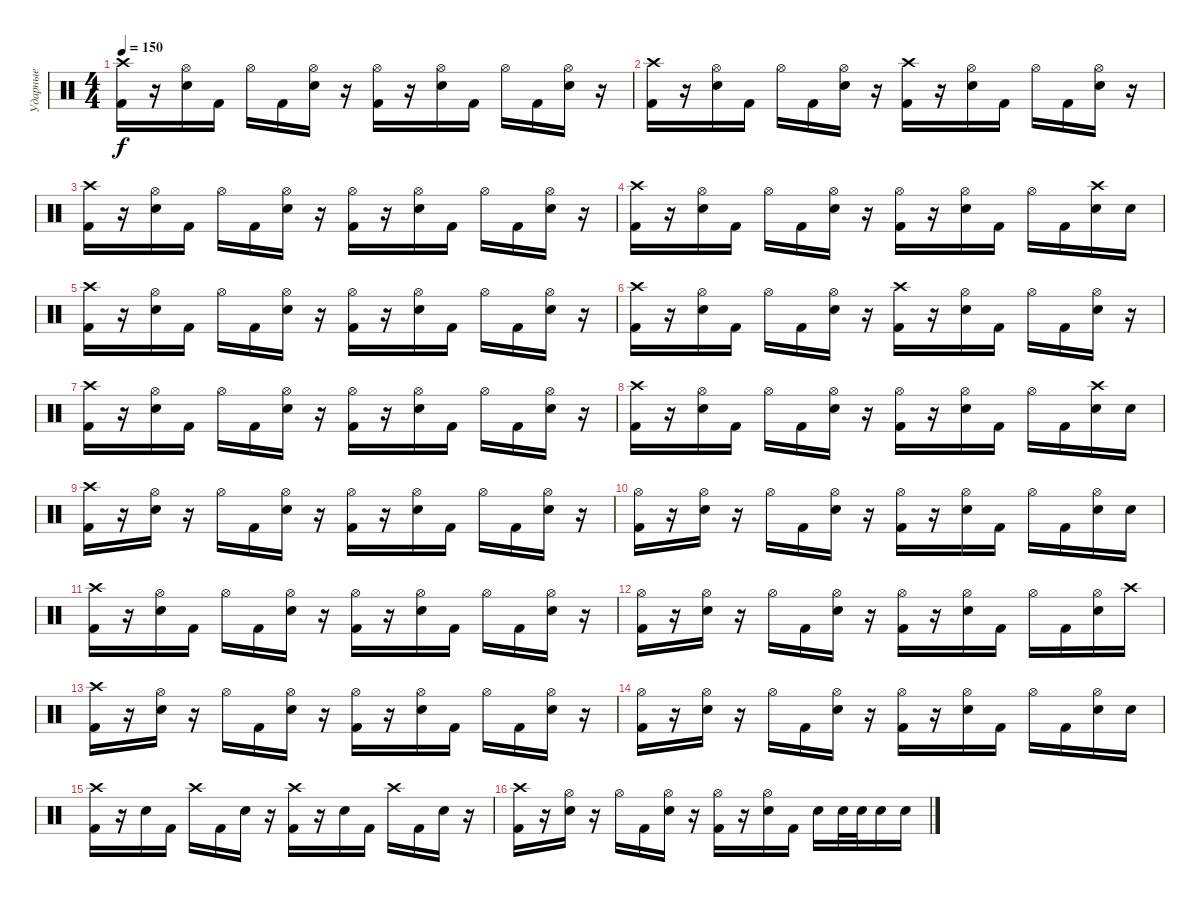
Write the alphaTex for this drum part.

\track ("Ударные" "Ударные") {instrument percussion}
\staff {score}
\articulation defaults
\ts (4 4)
\tempo 150
\clef neutral
\ks c
("Crash high (hit)" "Kick (hit) 2").16{dy f} r.16 ("Hi-Hat (open)" "Snare (hit) 2").16 "Kick (hit) 2".16 "Hi-Hat (open)".16 "Kick (hit) 2".16 ("Hi-Hat (open)" "Snare (hit) 2").16 r.16 ("Hi-Hat (open)" "Kick (hit) 2").16 r.16 ("Hi-Hat (open)" "Snare (hit) 2").16 "Kick (hit) 2".16 "Hi-Hat (open)".16 "Kick (hit) 2".16 ("Hi-Hat (open)" "Snare (hit) 2").16 r.16 |
("Crash high (hit)" "Kick (hit) 2").16 r.16 ("Hi-Hat (open)" "Snare (hit) 2").16 "Kick (hit) 2".16 "Hi-Hat (open)".16 "Kick (hit) 2".16 ("Hi-Hat (open)" "Snare (hit) 2").16 r.16 ("Crash high (hit)" "Kick (hit) 2").16 r.16 ("Hi-Hat (open)" "Snare (hit) 2").16 "Kick (hit) 2".16 "Hi-Hat (open)".16 "Kick (hit) 2".16 ("Hi-Hat (open)" "Snare (hit) 2").16 r.16 |
("Crash high (hit)" "Kick (hit) 2").16 r.16 ("Hi-Hat (open)" "Snare (hit) 2").16 "Kick (hit) 2".16 "Hi-Hat (open)".16 "Kick (hit) 2".16 ("Hi-Hat (open)" "Snare (hit) 2").16 r.16 ("Hi-Hat (open)" "Kick (hit) 2").16 r.16 ("Hi-Hat (open)" "Snare (hit) 2").16 "Kick (hit) 2".16 "Hi-Hat (open)".16 "Kick (hit) 2".16 ("Hi-Hat (open)" "Snare (hit) 2").16 r.16 |
("Crash high (hit)" "Kick (hit) 2").16 r.16 ("Hi-Hat (open)" "Snare (hit) 2").16 "Kick (hit) 2".16 "Hi-Hat (open)".16 "Kick (hit) 2".16 ("Hi-Hat (open)" "Snare (hit) 2").16 r.16 ("Hi-Hat (open)" "Kick (hit) 2").16 r.16 ("Hi-Hat (open)" "Snare (hit) 2").16 "Kick (hit) 2".16 "Hi-Hat (open)".16 "Kick (hit) 2".16 ("Crash high (hit)" "Snare (hit) 2").16 "Snare (hit) 2".16 |
("Crash high (hit)" "Kick (hit) 2").16 r.16 ("Hi-Hat (open)" "Snare (hit) 2").16 "Kick (hit) 2".16 "Hi-Hat (open)".16 "Kick (hit) 2".16 ("Hi-Hat (open)" "Snare (hit) 2").16 r.16 ("Hi-Hat (open)" "Kick (hit) 2").16 r.16 ("Hi-Hat (open)" "Snare (hit) 2").16 "Kick (hit) 2".16 "Hi-Hat (open)".16 "Kick (hit) 2".16 ("Hi-Hat (open)" "Snare (hit) 2").16 r.16 |
("Crash high (hit)" "Kick (hit) 2").16 r.16 ("Hi-Hat (open)" "Snare (hit) 2").16 "Kick (hit) 2".16 "Hi-Hat (open)".16 "Kick (hit) 2".16 ("Hi-Hat (open)" "Snare (hit) 2").16 r.16 ("Crash high (hit)" "Kick (hit) 2").16 r.16 ("Hi-Hat (open)" "Snare (hit) 2").16 "Kick (hit) 2".16 "Hi-Hat (open)".16 "Kick (hit) 2".16 ("Hi-Hat (open)" "Snare (hit) 2").16 r.16 |
("Crash high (hit)" "Kick (hit) 2").16 r.16 ("Hi-Hat (open)" "Snare (hit) 2").16 "Kick (hit) 2".16 "Hi-Hat (open)".16 "Kick (hit) 2".16 ("Hi-Hat (open)" "Snare (hit) 2").16 r.16 ("Hi-Hat (open)" "Kick (hit) 2").16 r.16 ("Hi-Hat (open)" "Snare (hit) 2").16 "Kick (hit) 2".16 "Hi-Hat (open)".16 "Kick (hit) 2".16 ("Hi-Hat (open)" "Snare (hit) 2").16 r.16 |
("Crash high (hit)" "Kick (hit) 2").16 r.16 ("Hi-Hat (open)" "Snare (hit) 2").16 "Kick (hit) 2".16 "Hi-Hat (open)".16 "Kick (hit) 2".16 ("Hi-Hat (open)" "Snare (hit) 2").16 r.16 ("Hi-Hat (open)" "Kick (hit) 2").16 r.16 ("Hi-Hat (open)" "Snare (hit) 2").16 "Kick (hit) 2".16 "Hi-Hat (open)".16 "Kick (hit) 2".16 ("Crash high (hit)" "Snare (hit) 2").16 "Snare (hit) 2".16 |
("Crash high (hit)" "Kick (hit) 2").16 r.16 ("Hi-Hat (open)" "Snare (hit) 2").16 r.16 "Hi-Hat (open)".16 "Kick (hit) 2".16 ("Hi-Hat (open)" "Snare (hit) 2").16 r.16 ("Hi-Hat (open)" "Kick (hit) 2").16 r.16 ("Hi-Hat (open)" "Snare (hit) 2").16 "Kick (hit) 2".16 "Hi-Hat (open)".16 "Kick (hit) 2".16 ("Hi-Hat (open)" "Snare (hit) 2").16 r.16 |
("Hi-Hat (open)" "Kick (hit) 2").16 r.16 ("Hi-Hat (open)" "Snare (hit) 2").16 r.16 "Hi-Hat (open)".16 "Kick (hit) 2".16 ("Hi-Hat (open)" "Snare (hit) 2").16 r.16 ("Hi-Hat (open)" "Kick (hit) 2").16 r.16 ("Hi-Hat (open)" "Snare (hit) 2").16 "Kick (hit) 2".16 "Hi-Hat (open)".16 "Kick (hit) 2".16 ("Hi-Hat (open)" "Snare (hit) 2").16 "Snare (hit) 2".16 |
("Crash high (hit)" "Kick (hit) 2").16 r.16 ("Hi-Hat (open)" "Snare (hit) 2").16 "Kick (hit) 2".16 "Hi-Hat (open)".16 "Kick (hit) 2".16 ("Hi-Hat (open)" "Snare (hit) 2").16 r.16 ("Hi-Hat (open)" "Kick (hit) 2").16 r.16 ("Hi-Hat (open)" "Snare (hit) 2").16 "Kick (hit) 2".16 "Hi-Hat (open)".16 "Kick (hit) 2".16 ("Hi-Hat (open)" "Snare (hit) 2").16 r.16 |
("Hi-Hat (open)" "Kick (hit) 2").16 r.16 ("Hi-Hat (open)" "Snare (hit) 2").16 r.16 "Hi-Hat (open)".16 "Kick (hit) 2".16 ("Hi-Hat (open)" "Snare (hit) 2").16 r.16 ("Hi-Hat (open)" "Kick (hit) 2").16 r.16 ("Hi-Hat (open)" "Snare (hit) 2").16 "Kick (hit) 2".16 "Hi-Hat (open)".16 "Kick (hit) 2".16 ("Hi-Hat (open)" "Snare (hit) 2").16 "Crash high (hit)".16 |
("Crash high (hit)" "Kick (hit) 2").16 r.16 ("Hi-Hat (open)" "Snare (hit) 2").16 r.16 "Hi-Hat (open)".16 "Kick (hit) 2".16 ("Hi-Hat (open)" "Snare (hit) 2").16 r.16 ("Hi-Hat (open)" "Kick (hit) 2").16 r.16 ("Hi-Hat (open)" "Snare (hit) 2").16 "Kick (hit) 2".16 "Hi-Hat (open)".16 "Kick (hit) 2".16 ("Hi-Hat (open)" "Snare (hit) 2").16 r.16 |
("Hi-Hat (open)" "Kick (hit) 2").16 r.16 ("Hi-Hat (open)" "Snare (hit) 2").16 r.16 "Hi-Hat (open)".16 "Kick (hit) 2".16 ("Hi-Hat (open)" "Snare (hit) 2").16 r.16 ("Hi-Hat (open)" "Kick (hit) 2").16 r.16 ("Hi-Hat (open)" "Snare (hit) 2").16 "Kick (hit) 2".16 "Hi-Hat (open)".16 "Kick (hit) 2".16 ("Hi-Hat (open)" "Snare (hit) 2").16 "Snare (hit) 2".16 |
("Crash high (hit)" "Kick (hit) 2").16 r.16 "Snare (hit) 2".16 "Kick (hit) 2".16 "Crash high (hit)".16 "Kick (hit) 2".16 "Snare (hit) 2".16 r.16 ("Crash high (hit)" "Kick (hit) 2").16 r.16 "Snare (hit) 2".16 "Kick (hit) 2".16 "Crash high (hit)".16 "Kick (hit) 2".16 "Snare (hit) 2".16 r.16 |
("Crash high (hit)" "Kick (hit) 2").16 r.16 ("Hi-Hat (open)" "Snare (hit) 2").16 r.16 "Hi-Hat (open)".16 "Kick (hit) 2".16 ("Hi-Hat (open)" "Snare (hit) 2").16 r.16 ("Hi-Hat (open)" "Kick (hit) 2").16 r.16 ("Hi-Hat (open)" "Snare (hit) 2").16 "Kick (hit) 2".16 "Snare (hit) 2".16 "Snare (hit) 2".32 "Snare (hit) 2".32 "Snare (hit) 2".16 "Snare (hit) 2".16
